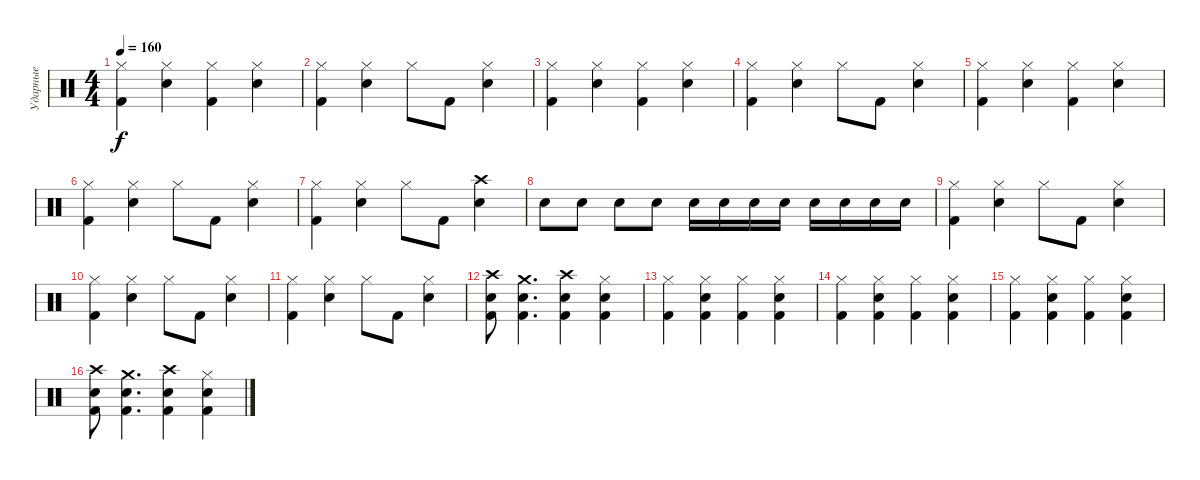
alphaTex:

\track ("Ударные" "Ударные") {instrument percussion}
\staff {score}
\articulation defaults
\ts (4 4)
\tempo 160
\clef neutral
\ks c
("Hi-Hat (closed)" "Kick (hit) 2").4{dy f} ("Hi-Hat (closed)" "Snare (hit) 2").4 ("Hi-Hat (closed)" "Kick (hit) 2").4 ("Hi-Hat (closed)" "Snare (hit) 2").4 |
("Hi-Hat (closed)" "Kick (hit) 2").4 ("Hi-Hat (closed)" "Snare (hit) 2").4 "Hi-Hat (closed)".8 "Kick (hit) 2".8 ("Hi-Hat (closed)" "Snare (hit) 2").4 |
("Hi-Hat (closed)" "Kick (hit) 2").4 ("Hi-Hat (closed)" "Snare (hit) 2").4 ("Hi-Hat (closed)" "Kick (hit) 2").4 ("Hi-Hat (closed)" "Snare (hit) 2").4 |
("Hi-Hat (closed)" "Kick (hit) 2").4 ("Hi-Hat (closed)" "Snare (hit) 2").4 "Hi-Hat (closed)".8 "Kick (hit) 2".8 ("Hi-Hat (closed)" "Snare (hit) 2").4 |
("Hi-Hat (closed)" "Kick (hit) 2").4 ("Hi-Hat (closed)" "Snare (hit) 2").4 ("Hi-Hat (closed)" "Kick (hit) 2").4 ("Hi-Hat (closed)" "Snare (hit) 2").4 |
("Hi-Hat (closed)" "Kick (hit) 2").4 ("Hi-Hat (closed)" "Snare (hit) 2").4 "Hi-Hat (closed)".8 "Kick (hit) 2".8 ("Hi-Hat (closed)" "Snare (hit) 2").4 |
("Hi-Hat (closed)" "Kick (hit) 2").4 ("Hi-Hat (closed)" "Snare (hit) 2").4 "Hi-Hat (closed)".8 "Kick (hit) 2".8 ("Crash high (hit)" "Snare (hit) 2").4 |
"Snare (hit) 2".8 "Snare (hit) 2".8 "Snare (hit) 2".8 "Snare (hit) 2".8 "Snare (hit) 2".16 "Snare (hit) 2".16 "Snare (hit) 2".16 "Snare (hit) 2".16 "Snare (hit) 2".16 "Snare (hit) 2".16 "Snare (hit) 2".16 "Snare (hit) 2".16 |
("Hi-Hat (closed)" "Kick (hit) 2").4 ("Hi-Hat (closed)" "Snare (hit) 2").4 "Hi-Hat (closed)".8 "Kick (hit) 2".8 ("Hi-Hat (closed)" "Snare (hit) 2").4 |
("Hi-Hat (closed)" "Kick (hit) 2").4 ("Hi-Hat (closed)" "Snare (hit) 2").4 "Hi-Hat (closed)".8 "Kick (hit) 2".8 ("Hi-Hat (closed)" "Snare (hit) 2").4 |
("Hi-Hat (closed)" "Kick (hit) 2").4 ("Hi-Hat (closed)" "Snare (hit) 2").4 "Hi-Hat (closed)".8 "Kick (hit) 2".8 ("Hi-Hat (closed)" "Snare (hit) 2").4 |
("Crash high (hit)" "Snare (hit) 2" "Kick (hit) 2").8 ("Crash medium (hit)" "Snare (hit) 2" "Kick (hit) 2").4{d} ("Crash high (hit)" "Snare (hit) 2" "Kick (hit) 2").4 ("Hi-Hat (closed)" "Snare (hit) 2" "Kick (hit) 2").4 |
("Hi-Hat (closed)" "Kick (hit) 2").4 ("Hi-Hat (closed)" "Snare (hit) 2" "Kick (hit) 2").4 ("Hi-Hat (closed)" "Kick (hit) 2").4 ("Hi-Hat (closed)" "Snare (hit) 2" "Kick (hit) 2").4 |
("Hi-Hat (closed)" "Kick (hit) 2").4 ("Hi-Hat (closed)" "Snare (hit) 2" "Kick (hit) 2").4 ("Hi-Hat (closed)" "Kick (hit) 2").4 ("Hi-Hat (closed)" "Snare (hit) 2" "Kick (hit) 2").4 |
("Hi-Hat (closed)" "Kick (hit) 2").4 ("Hi-Hat (closed)" "Snare (hit) 2" "Kick (hit) 2").4 ("Hi-Hat (closed)" "Kick (hit) 2").4 ("Hi-Hat (closed)" "Snare (hit) 2" "Kick (hit) 2").4 |
("Crash high (hit)" "Snare (hit) 2" "Kick (hit) 2").8 ("Crash medium (hit)" "Snare (hit) 2" "Kick (hit) 2").4{d} ("Crash high (hit)" "Snare (hit) 2" "Kick (hit) 2").4 ("Hi-Hat (closed)" "Snare (hit) 2" "Kick (hit) 2").4
